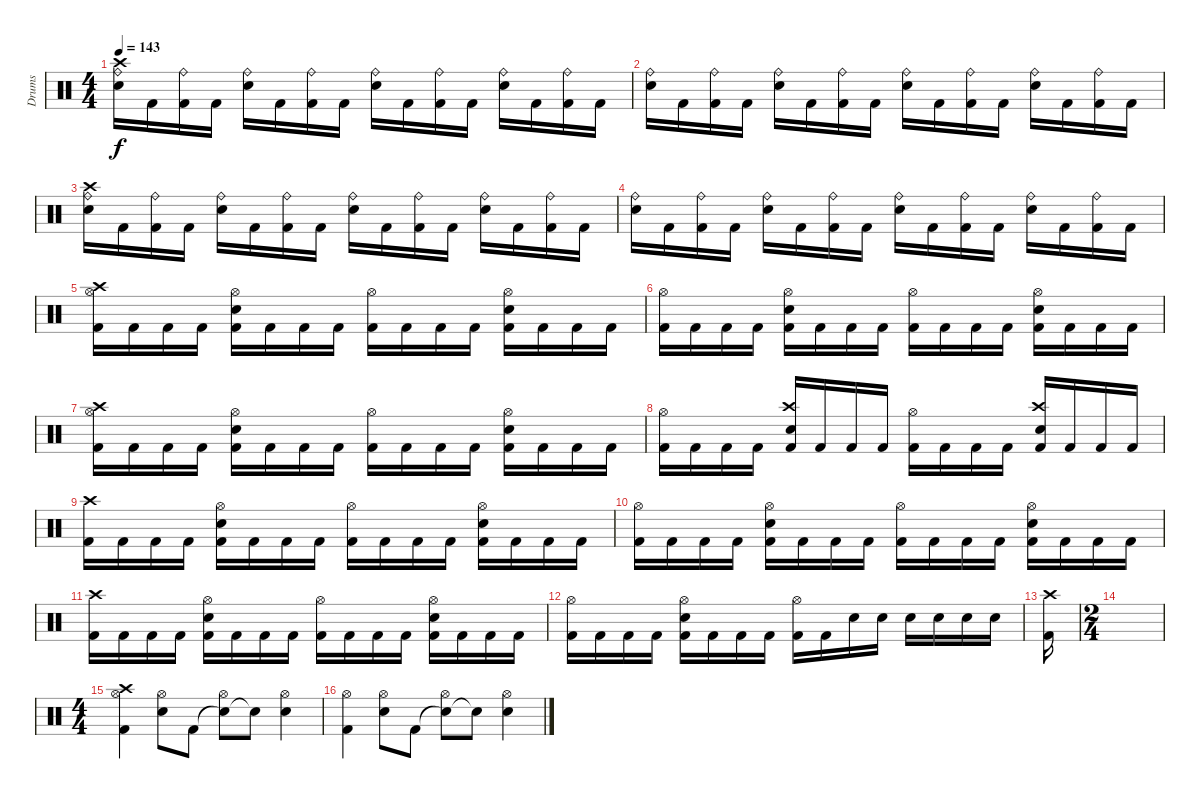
\track ("Drums" "Drums") {instrument percussion}
\staff {score}
\articulation defaults
\ts (4 4)
\tempo 143
\clef neutral
\ks c
("Snare (hit) 2" "Ride (bell)" "Crash high (hit)").16{dy f} "Kick (hit) 2".16 ("Kick (hit) 2" "Ride (bell)").16 "Kick (hit) 2".16 ("Snare (hit) 2" "Ride (bell)").16 "Kick (hit) 2".16 ("Kick (hit) 2" "Ride (bell)").16 "Kick (hit) 2".16 ("Snare (hit) 2" "Ride (bell)").16 "Kick (hit) 2".16 ("Kick (hit) 2" "Ride (bell)").16 "Kick (hit) 2".16 ("Snare (hit) 2" "Ride (bell)").16 "Kick (hit) 2".16 ("Kick (hit) 2" "Ride (bell)").16 "Kick (hit) 2".16 |
("Snare (hit) 2" "Ride (bell)").16 "Kick (hit) 2".16 ("Kick (hit) 2" "Ride (bell)").16 "Kick (hit) 2".16 ("Snare (hit) 2" "Ride (bell)").16 "Kick (hit) 2".16 ("Kick (hit) 2" "Ride (bell)").16 "Kick (hit) 2".16 ("Snare (hit) 2" "Ride (bell)").16 "Kick (hit) 2".16 ("Kick (hit) 2" "Ride (bell)").16 "Kick (hit) 2".16 ("Snare (hit) 2" "Ride (bell)").16 "Kick (hit) 2".16 ("Kick (hit) 2" "Ride (bell)").16 "Kick (hit) 2".16 |
("Snare (hit) 2" "Ride (bell)" "Crash high (hit)").16 "Kick (hit) 2".16 ("Kick (hit) 2" "Ride (bell)").16 "Kick (hit) 2".16 ("Snare (hit) 2" "Ride (bell)").16 "Kick (hit) 2".16 ("Kick (hit) 2" "Ride (bell)").16 "Kick (hit) 2".16 ("Snare (hit) 2" "Ride (bell)").16 "Kick (hit) 2".16 ("Kick (hit) 2" "Ride (bell)").16 "Kick (hit) 2".16 ("Snare (hit) 2" "Ride (bell)").16 "Kick (hit) 2".16 ("Kick (hit) 2" "Ride (bell)").16 "Kick (hit) 2".16 |
("Snare (hit) 2" "Ride (bell)").16 "Kick (hit) 2".16 ("Kick (hit) 2" "Ride (bell)").16 "Kick (hit) 2".16 ("Snare (hit) 2" "Ride (bell)").16 "Kick (hit) 2".16 ("Kick (hit) 2" "Ride (bell)").16 "Kick (hit) 2".16 ("Snare (hit) 2" "Ride (bell)").16 "Kick (hit) 2".16 ("Kick (hit) 2" "Ride (bell)").16 "Kick (hit) 2".16 ("Snare (hit) 2" "Ride (bell)").16 "Kick (hit) 2".16 ("Kick (hit) 2" "Ride (bell)").16 "Kick (hit) 2".16 |
("Kick (hit) 2" "Crash high (hit)" "Hi-Hat (open)").16 "Kick (hit) 2".16 "Kick (hit) 2".16 "Kick (hit) 2".16 ("Snare (hit) 2" "Kick (hit) 2" "Hi-Hat (open)").16 "Kick (hit) 2".16 "Kick (hit) 2".16 "Kick (hit) 2".16 ("Kick (hit) 2" "Hi-Hat (open)").16 "Kick (hit) 2".16 "Kick (hit) 2".16 "Kick (hit) 2".16 ("Snare (hit) 2" "Kick (hit) 2" "Hi-Hat (open)").16 "Kick (hit) 2".16 "Kick (hit) 2".16 "Kick (hit) 2".16 |
("Kick (hit) 2" "Hi-Hat (open)").16 "Kick (hit) 2".16 "Kick (hit) 2".16 "Kick (hit) 2".16 ("Snare (hit) 2" "Kick (hit) 2" "Hi-Hat (open)").16 "Kick (hit) 2".16 "Kick (hit) 2".16 "Kick (hit) 2".16 ("Kick (hit) 2" "Hi-Hat (open)").16 "Kick (hit) 2".16 "Kick (hit) 2".16 "Kick (hit) 2".16 ("Snare (hit) 2" "Kick (hit) 2" "Hi-Hat (open)").16 "Kick (hit) 2".16 "Kick (hit) 2".16 "Kick (hit) 2".16 |
("Kick (hit) 2" "Crash high (hit)" "Hi-Hat (open)").16 "Kick (hit) 2".16 "Kick (hit) 2".16 "Kick (hit) 2".16 ("Snare (hit) 2" "Kick (hit) 2" "Hi-Hat (open)").16 "Kick (hit) 2".16 "Kick (hit) 2".16 "Kick (hit) 2".16 ("Kick (hit) 2" "Hi-Hat (open)").16 "Kick (hit) 2".16 "Kick (hit) 2".16 "Kick (hit) 2".16 ("Snare (hit) 2" "Kick (hit) 2" "Hi-Hat (open)").16 "Kick (hit) 2".16 "Kick (hit) 2".16 "Kick (hit) 2".16 |
("Kick (hit) 2" "Hi-Hat (open)").16 "Kick (hit) 2".16 "Kick (hit) 2".16 "Kick (hit) 2".16 ("Snare (hit) 2" "Kick (hit) 2" "Crash high (hit)").16 "Kick (hit) 2".16 "Kick (hit) 2".16 "Kick (hit) 2".16 ("Kick (hit) 2" "Hi-Hat (open)").16 "Kick (hit) 2".16 "Kick (hit) 2".16 "Kick (hit) 2".16 ("Snare (hit) 2" "Kick (hit) 2" "Crash high (hit)").16 "Kick (hit) 2".16 "Kick (hit) 2".16 "Kick (hit) 2".16 |
("Kick (hit) 2" "Crash high (hit)").16 "Kick (hit) 2".16 "Kick (hit) 2".16 "Kick (hit) 2".16 ("Snare (hit) 2" "Kick (hit) 2" "Hi-Hat (open)").16 "Kick (hit) 2".16 "Kick (hit) 2".16 "Kick (hit) 2".16 ("Kick (hit) 2" "Hi-Hat (open)").16 "Kick (hit) 2".16 "Kick (hit) 2".16 "Kick (hit) 2".16 ("Snare (hit) 2" "Kick (hit) 2" "Hi-Hat (open)").16 "Kick (hit) 2".16 "Kick (hit) 2".16 "Kick (hit) 2".16 |
("Kick (hit) 2" "Hi-Hat (open)").16 "Kick (hit) 2".16 "Kick (hit) 2".16 "Kick (hit) 2".16 ("Snare (hit) 2" "Kick (hit) 2" "Hi-Hat (open)").16 "Kick (hit) 2".16 "Kick (hit) 2".16 "Kick (hit) 2".16 ("Kick (hit) 2" "Hi-Hat (open)").16 "Kick (hit) 2".16 "Kick (hit) 2".16 "Kick (hit) 2".16 ("Snare (hit) 2" "Kick (hit) 2" "Hi-Hat (open)").16 "Kick (hit) 2".16 "Kick (hit) 2".16 "Kick (hit) 2".16 |
("Kick (hit) 2" "Crash high (hit)").16 "Kick (hit) 2".16 "Kick (hit) 2".16 "Kick (hit) 2".16 ("Snare (hit) 2" "Kick (hit) 2" "Hi-Hat (open)").16 "Kick (hit) 2".16 "Kick (hit) 2".16 "Kick (hit) 2".16 ("Kick (hit) 2" "Hi-Hat (open)").16 "Kick (hit) 2".16 "Kick (hit) 2".16 "Kick (hit) 2".16 ("Snare (hit) 2" "Kick (hit) 2" "Hi-Hat (open)").16 "Kick (hit) 2".16 "Kick (hit) 2".16 "Kick (hit) 2".16 |
("Kick (hit) 2" "Hi-Hat (open)").16 "Kick (hit) 2".16 "Kick (hit) 2".16 "Kick (hit) 2".16 ("Snare (hit) 2" "Kick (hit) 2" "Hi-Hat (open)").16 "Kick (hit) 2".16 "Kick (hit) 2".16 "Kick (hit) 2".16 ("Kick (hit) 2" "Hi-Hat (open)").16 "Kick (hit) 2".16 "Snare (hit) 2".16 "Snare (hit) 2".16 "Snare (hit) 2".16 "Snare (hit) 2".16 "Snare (hit) 2".16 "Snare (hit) 2".16 |
("Crash high (hit)" "Kick (hit) 2").16 |
\ts (2 4)
|
\ts (4 4)
("Crash high (hit)" "Kick (hit) 2" "Hi-Hat (open)").4 ("Snare (hit) 2" "Hi-Hat (open)").8 "Kick (hit) 2".8 ("Snare (hit)"{t} "Hi-Hat (open)").8 "Snare (hit)"{t}.8 ("Snare (hit) 2" "Hi-Hat (open)").4 |
("Kick (hit) 2" "Hi-Hat (open)").4 ("Snare (hit) 2" "Hi-Hat (open)").8 "Kick (hit) 2".8 ("Snare (hit)"{t} "Hi-Hat (open)").8 "Snare (hit)"{t}.8 ("Snare (hit) 2" "Hi-Hat (open)").4
